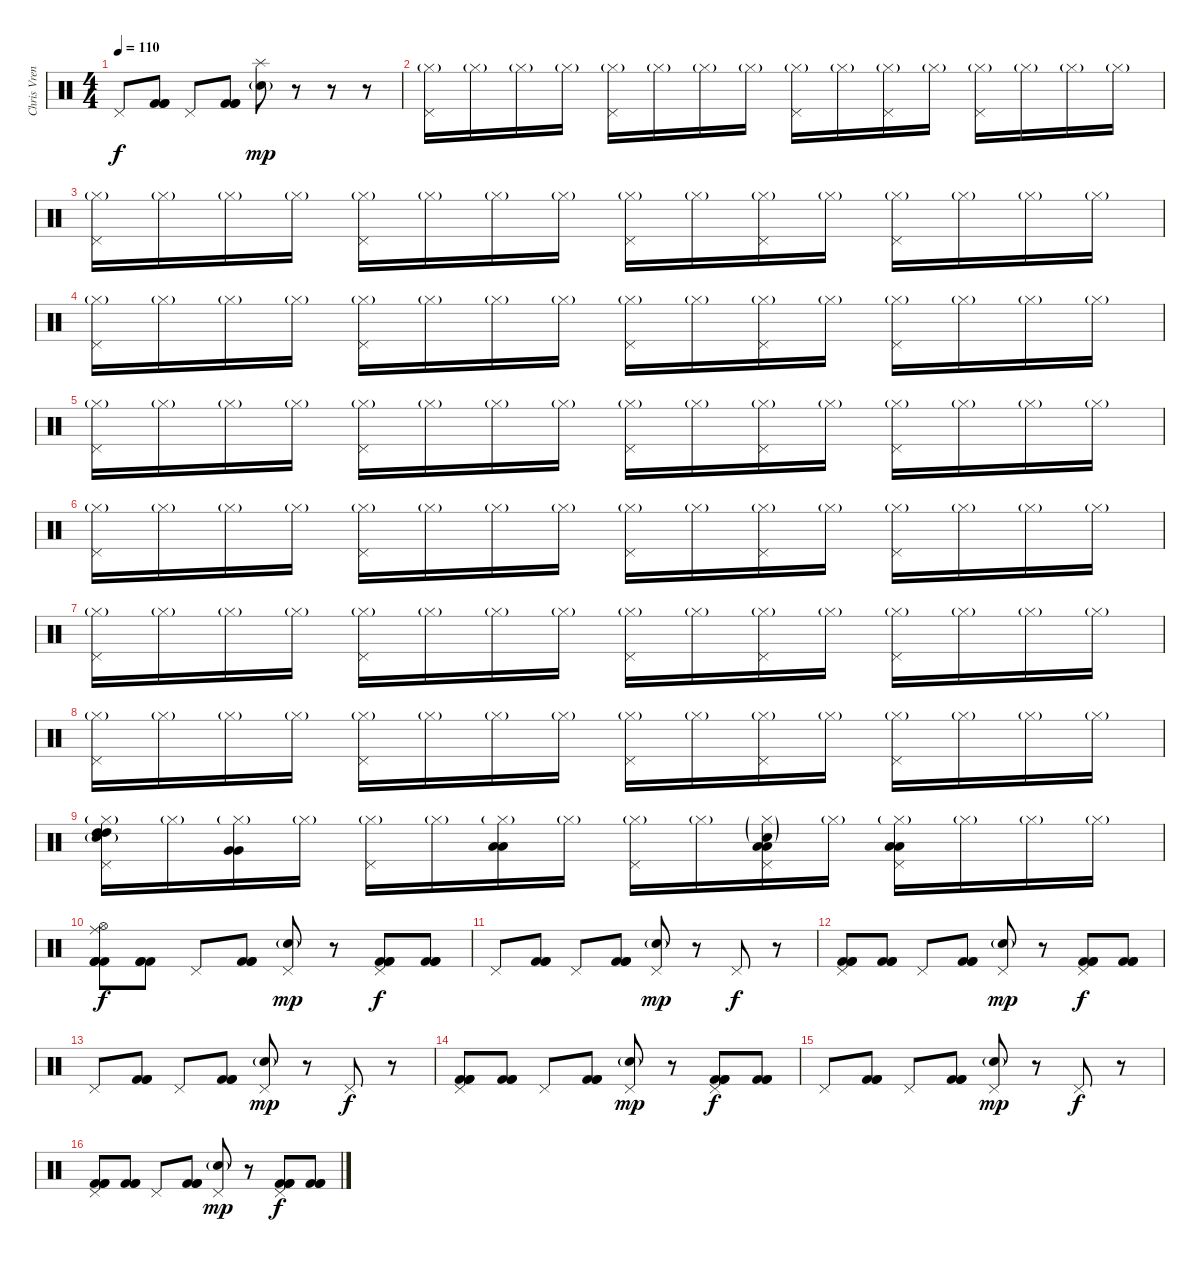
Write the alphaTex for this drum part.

\track ("Chris Vrenna " "Chris Vren") {instrument percussion}
\staff {score}
\articulation defaults
\ts (4 4)
\tempo 110
\clef neutral
\ks c "Pedal Hi-Hat (hit)".8{dy f}
("Kick (hit) 2" "Kick (hit) 2" "Kick (hit) 2").8 "Pedal Hi-Hat (hit)".8 ("Kick (hit) 2" "Kick (hit) 2" "Kick (hit) 2").8 ("Splash (hit)" "Electric Snare (hit)"{g}).8{dy mp} r.8 r.8 r.8 |
("Pedal Hi-Hat (hit)" "Hi-Hat (closed)"{g}).16 "Hi-Hat (closed)"{g}.16 "Hi-Hat (closed)"{g}.16 "Hi-Hat (closed)"{g}.16 ("Pedal Hi-Hat (hit)" "Hi-Hat (closed)"{g}).16 "Hi-Hat (closed)"{g}.16 "Hi-Hat (closed)"{g}.16 "Hi-Hat (closed)"{g}.16 ("Pedal Hi-Hat (hit)" "Hi-Hat (closed)"{g}).16 "Hi-Hat (closed)"{g}.16 ("Pedal Hi-Hat (hit)" "Hi-Hat (closed)"{g}).16 "Hi-Hat (closed)"{g}.16 ("Pedal Hi-Hat (hit)" "Hi-Hat (closed)"{g}).16 "Hi-Hat (closed)"{g}.16 "Hi-Hat (closed)"{g}.16 "Hi-Hat (closed)"{g}.16 |
("Pedal Hi-Hat (hit)" "Hi-Hat (closed)"{g}).16 "Hi-Hat (closed)"{g}.16 "Hi-Hat (closed)"{g}.16 "Hi-Hat (closed)"{g}.16 ("Pedal Hi-Hat (hit)" "Hi-Hat (closed)"{g}).16 "Hi-Hat (closed)"{g}.16 "Hi-Hat (closed)"{g}.16 "Hi-Hat (closed)"{g}.16 ("Pedal Hi-Hat (hit)" "Hi-Hat (closed)"{g}).16 "Hi-Hat (closed)"{g}.16 ("Pedal Hi-Hat (hit)" "Hi-Hat (closed)"{g}).16 "Hi-Hat (closed)"{g}.16 ("Pedal Hi-Hat (hit)" "Hi-Hat (closed)"{g}).16 "Hi-Hat (closed)"{g}.16 "Hi-Hat (closed)"{g}.16 "Hi-Hat (closed)"{g}.16 |
("Pedal Hi-Hat (hit)" "Hi-Hat (closed)"{g}).16 "Hi-Hat (closed)"{g}.16 "Hi-Hat (closed)"{g}.16 "Hi-Hat (closed)"{g}.16 ("Pedal Hi-Hat (hit)" "Hi-Hat (closed)"{g}).16 "Hi-Hat (closed)"{g}.16 "Hi-Hat (closed)"{g}.16 "Hi-Hat (closed)"{g}.16 ("Pedal Hi-Hat (hit)" "Hi-Hat (closed)"{g}).16 "Hi-Hat (closed)"{g}.16 ("Pedal Hi-Hat (hit)" "Hi-Hat (closed)"{g}).16 "Hi-Hat (closed)"{g}.16 ("Pedal Hi-Hat (hit)" "Hi-Hat (closed)"{g}).16 "Hi-Hat (closed)"{g}.16 "Hi-Hat (closed)"{g}.16 "Hi-Hat (closed)"{g}.16 |
("Pedal Hi-Hat (hit)" "Hi-Hat (closed)"{g}).16 "Hi-Hat (closed)"{g}.16 "Hi-Hat (closed)"{g}.16 "Hi-Hat (closed)"{g}.16 ("Pedal Hi-Hat (hit)" "Hi-Hat (closed)"{g}).16 "Hi-Hat (closed)"{g}.16 "Hi-Hat (closed)"{g}.16 "Hi-Hat (closed)"{g}.16 ("Pedal Hi-Hat (hit)" "Hi-Hat (closed)"{g}).16 "Hi-Hat (closed)"{g}.16 ("Pedal Hi-Hat (hit)" "Hi-Hat (closed)"{g}).16 "Hi-Hat (closed)"{g}.16 ("Pedal Hi-Hat (hit)" "Hi-Hat (closed)"{g}).16 "Hi-Hat (closed)"{g}.16 "Hi-Hat (closed)"{g}.16 "Hi-Hat (closed)"{g}.16 |
("Pedal Hi-Hat (hit)" "Hi-Hat (closed)"{g}).16 "Hi-Hat (closed)"{g}.16 "Hi-Hat (closed)"{g}.16 "Hi-Hat (closed)"{g}.16 ("Pedal Hi-Hat (hit)" "Hi-Hat (closed)"{g}).16 "Hi-Hat (closed)"{g}.16 "Hi-Hat (closed)"{g}.16 "Hi-Hat (closed)"{g}.16 ("Pedal Hi-Hat (hit)" "Hi-Hat (closed)"{g}).16 "Hi-Hat (closed)"{g}.16 ("Pedal Hi-Hat (hit)" "Hi-Hat (closed)"{g}).16 "Hi-Hat (closed)"{g}.16 ("Pedal Hi-Hat (hit)" "Hi-Hat (closed)"{g}).16 "Hi-Hat (closed)"{g}.16 "Hi-Hat (closed)"{g}.16 "Hi-Hat (closed)"{g}.16 |
("Pedal Hi-Hat (hit)" "Hi-Hat (closed)"{g}).16 "Hi-Hat (closed)"{g}.16 "Hi-Hat (closed)"{g}.16 "Hi-Hat (closed)"{g}.16 ("Pedal Hi-Hat (hit)" "Hi-Hat (closed)"{g}).16 "Hi-Hat (closed)"{g}.16 "Hi-Hat (closed)"{g}.16 "Hi-Hat (closed)"{g}.16 ("Pedal Hi-Hat (hit)" "Hi-Hat (closed)"{g}).16 "Hi-Hat (closed)"{g}.16 ("Pedal Hi-Hat (hit)" "Hi-Hat (closed)"{g}).16 "Hi-Hat (closed)"{g}.16 ("Pedal Hi-Hat (hit)" "Hi-Hat (closed)"{g}).16 "Hi-Hat (closed)"{g}.16 "Hi-Hat (closed)"{g}.16 "Hi-Hat (closed)"{g}.16 |
("Pedal Hi-Hat (hit)" "Hi-Hat (closed)"{g}).16 "Hi-Hat (closed)"{g}.16 "Hi-Hat (closed)"{g}.16 "Hi-Hat (closed)"{g}.16 ("Pedal Hi-Hat (hit)" "Hi-Hat (closed)"{g}).16 "Hi-Hat (closed)"{g}.16 "Hi-Hat (closed)"{g}.16 "Hi-Hat (closed)"{g}.16 ("Pedal Hi-Hat (hit)" "Hi-Hat (closed)"{g}).16 "Hi-Hat (closed)"{g}.16 ("Pedal Hi-Hat (hit)" "Hi-Hat (closed)"{g}).16 "Hi-Hat (closed)"{g}.16 ("Pedal Hi-Hat (hit)" "Hi-Hat (closed)"{g}).16 "Hi-Hat (closed)"{g}.16 "Hi-Hat (closed)"{g}.16 "Hi-Hat (closed)"{g}.16 |
("Snare (hit) 2"{g} "Pedal Hi-Hat (hit)" "Hi-Hat (closed)"{g} "High Tom (hit)" "High Tom (hit)").16 "Hi-Hat (closed)"{g}.16 ("Hi-Hat (closed)"{g} "Very Low Tom (hit)" "Very Low Tom (hit)").16 "Hi-Hat (closed)"{g}.16 ("Pedal Hi-Hat (hit)" "Hi-Hat (closed)"{g}).16 "Hi-Hat (closed)"{g}.16 ("Hi-Hat (closed)"{g} "Low Floor Tom (hit)" "Low Floor Tom (hit)").16 "Hi-Hat (closed)"{g}.16 ("Pedal Hi-Hat (hit)" "Hi-Hat (closed)"{g}).16 "Hi-Hat (closed)"{g}.16 ("Snare (hit) 2"{g} "Pedal Hi-Hat (hit)" "Hi-Hat (closed)"{g} "Low Tom (hit)" "Low Tom (hit)").16 "Hi-Hat (closed)"{g}.16 ("Pedal Hi-Hat (hit)" "Hi-Hat (closed)"{g} "Low Floor Tom (hit)" "Low Floor Tom (hit)").16 "Hi-Hat (closed)"{g}.16 "Hi-Hat (closed)"{g}.16 "Hi-Hat (closed)"{g}.16 |
("Ride (middle)" "Hi-Hat (open)" "Kick (hit) 2" "Kick (hit) 2" "Kick (hit) 2").8{dy f} ("Kick (hit) 2" "Kick (hit) 2" "Kick (hit) 2").8 "Pedal Hi-Hat (hit)".8 ("Kick (hit) 2" "Kick (hit) 2" "Kick (hit) 2").8 ("Pedal Hi-Hat (hit)" "Electric Snare (hit)"{g}).8{dy mp} r.8 ("Pedal Hi-Hat (hit)" "Kick (hit) 2" "Kick (hit) 2" "Kick (hit) 2").8{dy f} ("Kick (hit) 2" "Kick (hit) 2" "Kick (hit) 2").8 |
"Pedal Hi-Hat (hit)".8 ("Kick (hit) 2" "Kick (hit) 2" "Kick (hit) 2").8 "Pedal Hi-Hat (hit)".8 ("Kick (hit) 2" "Kick (hit) 2" "Kick (hit) 2").8 ("Pedal Hi-Hat (hit)" "Electric Snare (hit)"{g}).8{dy mp} r.8 "Pedal Hi-Hat (hit)".8{dy f} r.8 |
("Pedal Hi-Hat (hit)" "Kick (hit) 2" "Kick (hit) 2" "Kick (hit) 2").8 ("Kick (hit) 2" "Kick (hit) 2" "Kick (hit) 2").8 "Pedal Hi-Hat (hit)".8 ("Kick (hit) 2" "Kick (hit) 2" "Kick (hit) 2").8 ("Pedal Hi-Hat (hit)" "Electric Snare (hit)"{g}).8{dy mp} r.8 ("Pedal Hi-Hat (hit)" "Kick (hit) 2" "Kick (hit) 2" "Kick (hit) 2").8{dy f} ("Kick (hit) 2" "Kick (hit) 2" "Kick (hit) 2").8 |
"Pedal Hi-Hat (hit)".8 ("Kick (hit) 2" "Kick (hit) 2" "Kick (hit) 2").8 "Pedal Hi-Hat (hit)".8 ("Kick (hit) 2" "Kick (hit) 2" "Kick (hit) 2").8 ("Pedal Hi-Hat (hit)" "Electric Snare (hit)"{g}).8{dy mp} r.8 "Pedal Hi-Hat (hit)".8{dy f} r.8 |
("Pedal Hi-Hat (hit)" "Kick (hit) 2" "Kick (hit) 2" "Kick (hit) 2").8 ("Kick (hit) 2" "Kick (hit) 2" "Kick (hit) 2").8 "Pedal Hi-Hat (hit)".8 ("Kick (hit) 2" "Kick (hit) 2" "Kick (hit) 2").8 ("Pedal Hi-Hat (hit)" "Electric Snare (hit)"{g}).8{dy mp} r.8 ("Pedal Hi-Hat (hit)" "Kick (hit) 2" "Kick (hit) 2" "Kick (hit) 2").8{dy f} ("Kick (hit) 2" "Kick (hit) 2" "Kick (hit) 2").8 |
"Pedal Hi-Hat (hit)".8 ("Kick (hit) 2" "Kick (hit) 2" "Kick (hit) 2").8 "Pedal Hi-Hat (hit)".8 ("Kick (hit) 2" "Kick (hit) 2" "Kick (hit) 2").8 ("Pedal Hi-Hat (hit)" "Electric Snare (hit)"{g}).8{dy mp} r.8 "Pedal Hi-Hat (hit)".8{dy f} r.8 |
("Pedal Hi-Hat (hit)" "Kick (hit) 2" "Kick (hit) 2" "Kick (hit) 2").8 ("Kick (hit) 2" "Kick (hit) 2" "Kick (hit) 2").8 "Pedal Hi-Hat (hit)".8 ("Kick (hit) 2" "Kick (hit) 2" "Kick (hit) 2").8 ("Pedal Hi-Hat (hit)" "Electric Snare (hit)"{g}).8{dy mp} r.8 ("Pedal Hi-Hat (hit)" "Kick (hit) 2" "Kick (hit) 2" "Kick (hit) 2").8{dy f} ("Kick (hit) 2" "Kick (hit) 2" "Kick (hit) 2").8
